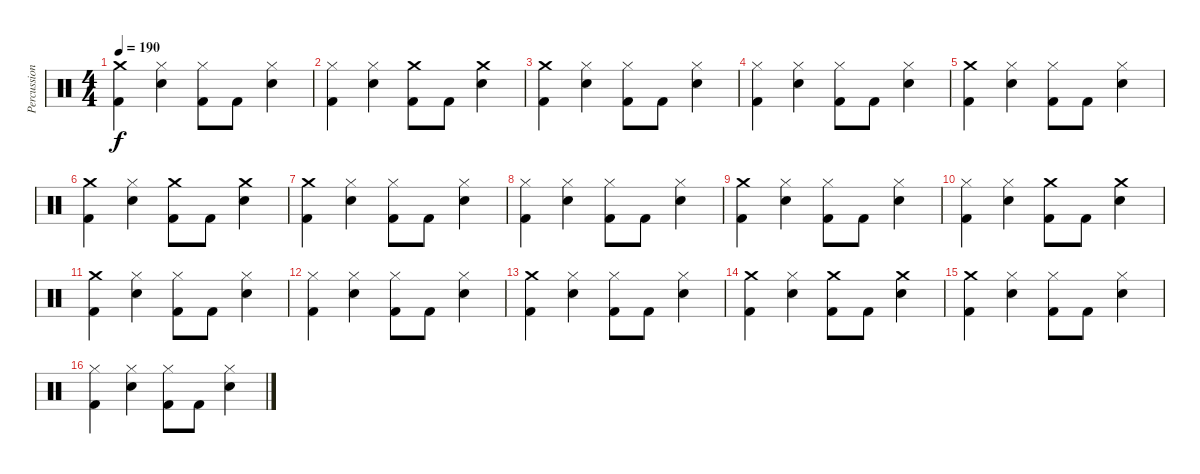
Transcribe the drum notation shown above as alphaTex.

\track ("Percussion" "Percussion") {instrument percussion}
\staff {score}
\articulation defaults
\ts (4 4)
\tempo 190
\clef neutral
\ks c
("Crash medium (hit)" "Kick (hit) 2").4{dy f} ("Hi-Hat (closed)" "Snare (hit) 2").4 ("Hi-Hat (closed)" "Kick (hit) 2").8 "Kick (hit) 2".8 ("Hi-Hat (closed)" "Snare (hit) 2").4 |
("Hi-Hat (closed)" "Kick (hit) 2").4 ("Hi-Hat (closed)" "Snare (hit) 2").4 ("Crash medium (hit)" "Kick (hit) 2").8 "Kick (hit) 2".8 ("Crash medium (hit)" "Snare (hit) 2").4 |
("Crash medium (hit)" "Kick (hit) 2").4 ("Hi-Hat (closed)" "Snare (hit) 2").4 ("Hi-Hat (closed)" "Kick (hit) 2").8 "Kick (hit) 2".8 ("Hi-Hat (closed)" "Snare (hit) 2").4 |
("Hi-Hat (closed)" "Kick (hit) 2").4 ("Hi-Hat (closed)" "Snare (hit) 2").4 ("Hi-Hat (closed)" "Kick (hit) 2").8 "Kick (hit) 2".8 ("Hi-Hat (closed)" "Snare (hit) 2").4 |
("Crash medium (hit)" "Kick (hit) 2").4 ("Hi-Hat (closed)" "Snare (hit) 2").4 ("Hi-Hat (closed)" "Kick (hit) 2").8 "Kick (hit) 2".8 ("Hi-Hat (closed)" "Snare (hit) 2").4 |
("Crash medium (hit)" "Kick (hit) 2").4 ("Hi-Hat (closed)" "Snare (hit) 2").4 ("Crash medium (hit)" "Kick (hit) 2").8 "Kick (hit) 2".8 ("Crash medium (hit)" "Snare (hit) 2").4 |
("Crash medium (hit)" "Kick (hit) 2").4 ("Hi-Hat (closed)" "Snare (hit) 2").4 ("Hi-Hat (closed)" "Kick (hit) 2").8 "Kick (hit) 2".8 ("Hi-Hat (closed)" "Snare (hit) 2").4 |
("Hi-Hat (closed)" "Kick (hit) 2").4 ("Hi-Hat (closed)" "Snare (hit) 2").4 ("Hi-Hat (closed)" "Kick (hit) 2").8 "Kick (hit) 2".8 ("Hi-Hat (closed)" "Snare (hit) 2").4 |
("Crash medium (hit)" "Kick (hit) 2").4 ("Hi-Hat (closed)" "Snare (hit) 2").4 ("Hi-Hat (closed)" "Kick (hit) 2").8 "Kick (hit) 2".8 ("Hi-Hat (closed)" "Snare (hit) 2").4 |
("Hi-Hat (closed)" "Kick (hit) 2").4 ("Hi-Hat (closed)" "Snare (hit) 2").4 ("Crash medium (hit)" "Kick (hit) 2").8 "Kick (hit) 2".8 ("Crash medium (hit)" "Snare (hit) 2").4 |
("Crash medium (hit)" "Kick (hit) 2").4 ("Hi-Hat (closed)" "Snare (hit) 2").4 ("Hi-Hat (closed)" "Kick (hit) 2").8 "Kick (hit) 2".8 ("Hi-Hat (closed)" "Snare (hit) 2").4 |
("Hi-Hat (closed)" "Kick (hit) 2").4 ("Hi-Hat (closed)" "Snare (hit) 2").4 ("Hi-Hat (closed)" "Kick (hit) 2").8 "Kick (hit) 2".8 ("Hi-Hat (closed)" "Snare (hit) 2").4 |
("Crash medium (hit)" "Kick (hit) 2").4 ("Hi-Hat (closed)" "Snare (hit) 2").4 ("Hi-Hat (closed)" "Kick (hit) 2").8 "Kick (hit) 2".8 ("Hi-Hat (closed)" "Snare (hit) 2").4 |
("Crash medium (hit)" "Kick (hit) 2").4 ("Hi-Hat (closed)" "Snare (hit) 2").4 ("Crash medium (hit)" "Kick (hit) 2").8 "Kick (hit) 2".8 ("Crash medium (hit)" "Snare (hit) 2").4 |
("Crash medium (hit)" "Kick (hit) 2").4 ("Hi-Hat (closed)" "Snare (hit) 2").4 ("Hi-Hat (closed)" "Kick (hit) 2").8 "Kick (hit) 2".8 ("Hi-Hat (closed)" "Snare (hit) 2").4 |
("Hi-Hat (closed)" "Kick (hit) 2").4 ("Hi-Hat (closed)" "Snare (hit) 2").4 ("Hi-Hat (closed)" "Kick (hit) 2").8 "Kick (hit) 2".8 ("Hi-Hat (closed)" "Snare (hit) 2").4
